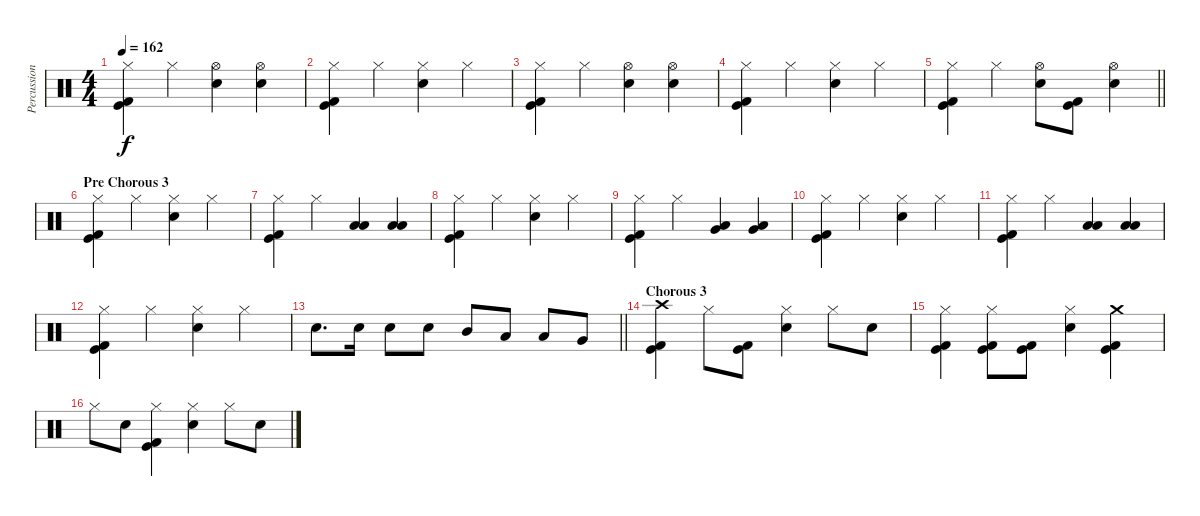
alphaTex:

\track ("Percussion" "Percussion") {instrument percussion}
\staff {score}
\articulation defaults
\ts (4 4)
\tempo 162
\clef neutral
\ks c
("Hi-Hat (closed)" "Kick (hit)" "Kick (hit) 2").4{dy f} "Hi-Hat (closed)".4 ("Hi-Hat (open)" "Electric Snare (hit)").4 ("Hi-Hat (open)" "Electric Snare (hit)").4 |
("Hi-Hat (closed)" "Kick (hit)" "Kick (hit) 2").4 "Hi-Hat (closed)".4 ("Hi-Hat (closed)" "Electric Snare (hit)").4 "Hi-Hat (closed)".4 |
("Hi-Hat (closed)" "Kick (hit)" "Kick (hit) 2").4 "Hi-Hat (closed)".4 ("Hi-Hat (open)" "Electric Snare (hit)").4 ("Hi-Hat (open)" "Electric Snare (hit)").4 |
("Hi-Hat (closed)" "Kick (hit)" "Kick (hit) 2").4 "Hi-Hat (closed)".4 ("Hi-Hat (closed)" "Electric Snare (hit)").4 "Hi-Hat (closed)".4 |
\barLineRight lightlight
("Hi-Hat (closed)" "Kick (hit)" "Kick (hit) 2").4 "Hi-Hat (closed)".4 ("Hi-Hat (open)" "Electric Snare (hit)").8 ("Kick (hit)" "Kick (hit) 2").8 ("Hi-Hat (open)" "Electric Snare (hit)").4 |
\section ("" "Pre Chorous 3")
("Hi-Hat (closed)" "Kick (hit)" "Kick (hit) 2").4 "Hi-Hat (closed)".4 ("Hi-Hat (closed)" "Electric Snare (hit)").4 "Hi-Hat (closed)".4 |
("Hi-Hat (closed)" "Kick (hit)" "Kick (hit) 2").4 "Hi-Hat (closed)".4 ("Low Tom (hit)" "Low Floor Tom (hit)").4 ("Low Tom (hit)" "Low Floor Tom (hit)").4 |
("Hi-Hat (closed)" "Kick (hit)" "Kick (hit) 2").4 "Hi-Hat (closed)".4 ("Hi-Hat (closed)" "Electric Snare (hit)").4 "Hi-Hat (closed)".4 |
("Hi-Hat (closed)" "Kick (hit)" "Kick (hit) 2").4 "Hi-Hat (closed)".4 ("Very Low Tom (hit)" "Low Floor Tom (hit)").4 ("Very Low Tom (hit)" "Low Floor Tom (hit)").4 |
("Hi-Hat (closed)" "Kick (hit)" "Kick (hit) 2").4 "Hi-Hat (closed)".4 ("Hi-Hat (closed)" "Electric Snare (hit)").4 "Hi-Hat (closed)".4 |
("Hi-Hat (closed)" "Kick (hit)" "Kick (hit) 2").4 "Hi-Hat (closed)".4 ("Low Tom (hit)" "Low Floor Tom (hit)").4 ("Low Tom (hit)" "Low Floor Tom (hit)").4 |
("Hi-Hat (closed)" "Kick (hit)" "Kick (hit) 2").4 "Hi-Hat (closed)".4 ("Hi-Hat (closed)" "Electric Snare (hit)").4 "Hi-Hat (closed)".4 |
\barLineRight lightlight "Electric Snare (hit)".8{d} "Electric Snare (hit)".16 "Electric Snare (hit)".8 "Electric Snare (hit)".8 "Mid Tom (hit)".8 "Low Tom (hit)".8 "Low Tom (hit)".8 "Very Low Tom (hit)".8
|
\section ("" "Chorous 3")
("Crash high (hit)" "Kick (hit)" "Kick (hit) 2").4 "Hi-Hat (closed)".8 ("Kick (hit)" "Kick (hit) 2").8 ("Hi-Hat (closed)" "Electric Snare (hit)").4 "Hi-Hat (closed)".8 "Electric Snare (hit)".8 |
("Hi-Hat (closed)" "Kick (hit)" "Kick (hit) 2").4 ("Hi-Hat (closed)" "Kick (hit)" "Kick (hit) 2").8 ("Kick (hit)" "Kick (hit) 2").8 ("Hi-Hat (closed)" "Electric Snare (hit)").4 ("Crash medium (hit)" "Kick (hit)" "Kick (hit) 2").4 |
"Hi-Hat (closed)".8 "Electric Snare (hit)".8 ("Hi-Hat (closed)" "Kick (hit)" "Kick (hit) 2").4 ("Hi-Hat (closed)" "Electric Snare (hit)").4 "Hi-Hat (closed)".8 "Electric Snare (hit)".8
